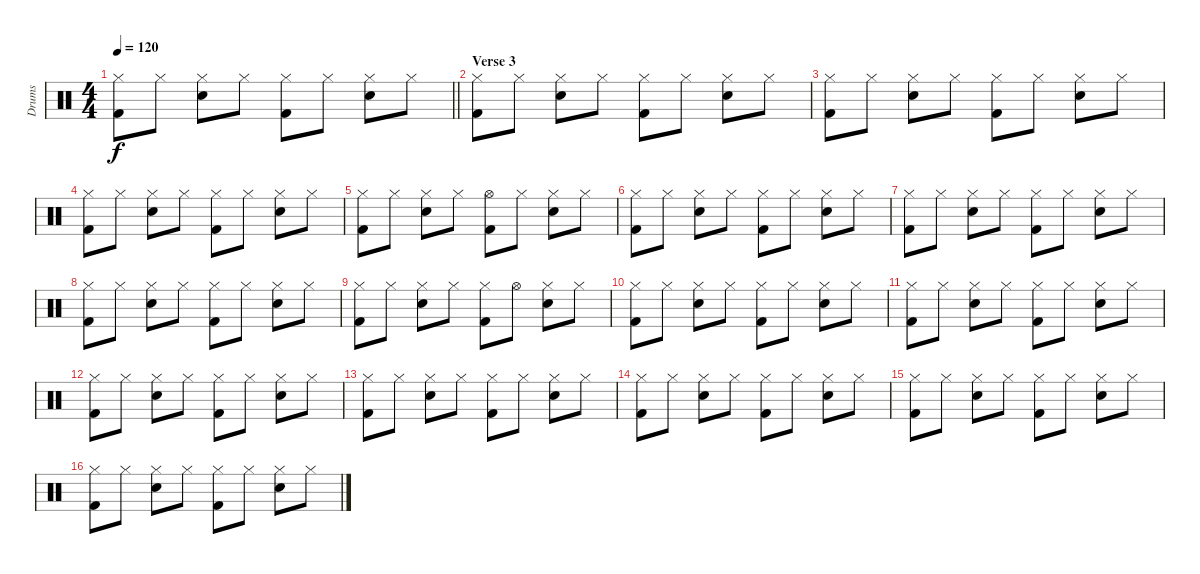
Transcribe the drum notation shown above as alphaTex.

\track ("Drums" "Drums") {instrument percussion}
\staff {score}
\articulation defaults
\ts (4 4)
\tempo 120
\clef neutral
\barLineRight lightlight
\ks c
("Hi-Hat (closed)" "Kick (hit) 2").8{dy f} "Hi-Hat (closed)".8 ("Hi-Hat (closed)" "Snare (hit) 2").8 "Hi-Hat (closed)".8 ("Hi-Hat (closed)" "Kick (hit) 2").8 "Hi-Hat (closed)".8 ("Hi-Hat (closed)" "Snare (hit) 2").8 "Hi-Hat (closed)".8 |
\section ("" "Verse 3")
("Hi-Hat (closed)" "Kick (hit) 2").8 "Hi-Hat (closed)".8 ("Hi-Hat (closed)" "Snare (hit) 2").8 "Hi-Hat (closed)".8 ("Hi-Hat (closed)" "Kick (hit) 2").8 "Hi-Hat (closed)".8 ("Hi-Hat (closed)" "Snare (hit) 2").8 "Hi-Hat (closed)".8 |
("Hi-Hat (closed)" "Kick (hit) 2").8 "Hi-Hat (closed)".8 ("Hi-Hat (closed)" "Snare (hit) 2").8 "Hi-Hat (closed)".8 ("Hi-Hat (closed)" "Kick (hit) 2").8 "Hi-Hat (closed)".8 ("Hi-Hat (closed)" "Snare (hit) 2").8 "Hi-Hat (closed)".8 |
("Hi-Hat (closed)" "Kick (hit) 2").8 "Hi-Hat (closed)".8 ("Hi-Hat (closed)" "Snare (hit) 2").8 "Hi-Hat (closed)".8 ("Hi-Hat (closed)" "Kick (hit) 2").8 "Hi-Hat (closed)".8 ("Hi-Hat (closed)" "Snare (hit) 2").8 "Hi-Hat (closed)".8 |
("Hi-Hat (closed)" "Kick (hit) 2").8 "Hi-Hat (closed)".8 ("Hi-Hat (closed)" "Snare (hit) 2").8 "Hi-Hat (closed)".8 ("Hi-Hat (open)" "Kick (hit) 2").8 "Hi-Hat (closed)".8 ("Hi-Hat (closed)" "Snare (hit) 2").8 "Hi-Hat (closed)".8 |
("Hi-Hat (closed)" "Kick (hit) 2").8 "Hi-Hat (closed)".8 ("Hi-Hat (closed)" "Snare (hit) 2").8 "Hi-Hat (closed)".8 ("Hi-Hat (closed)" "Kick (hit) 2").8 "Hi-Hat (closed)".8 ("Hi-Hat (closed)" "Snare (hit) 2").8 "Hi-Hat (closed)".8 |
("Hi-Hat (closed)" "Kick (hit) 2").8 "Hi-Hat (closed)".8 ("Hi-Hat (closed)" "Snare (hit) 2").8 "Hi-Hat (closed)".8 ("Hi-Hat (closed)" "Kick (hit) 2").8 "Hi-Hat (closed)".8 ("Hi-Hat (closed)" "Snare (hit) 2").8 "Hi-Hat (closed)".8 |
("Hi-Hat (closed)" "Kick (hit) 2").8 "Hi-Hat (closed)".8 ("Hi-Hat (closed)" "Snare (hit) 2").8 "Hi-Hat (closed)".8 ("Hi-Hat (closed)" "Kick (hit) 2").8 "Hi-Hat (closed)".8 ("Hi-Hat (closed)" "Snare (hit) 2").8 "Hi-Hat (closed)".8 |
("Hi-Hat (closed)" "Kick (hit) 2").8 "Hi-Hat (closed)".8 ("Hi-Hat (closed)" "Snare (hit) 2").8 "Hi-Hat (closed)".8 ("Hi-Hat (closed)" "Kick (hit) 2").8 "Hi-Hat (open)".8 ("Hi-Hat (closed)" "Snare (hit) 2").8 "Hi-Hat (closed)".8 |
("Hi-Hat (closed)" "Kick (hit) 2").8 "Hi-Hat (closed)".8 ("Hi-Hat (closed)" "Snare (hit) 2").8 "Hi-Hat (closed)".8 ("Hi-Hat (closed)" "Kick (hit) 2").8 "Hi-Hat (closed)".8 ("Hi-Hat (closed)" "Snare (hit) 2").8 "Hi-Hat (closed)".8 |
("Hi-Hat (closed)" "Kick (hit) 2").8 "Hi-Hat (closed)".8 ("Hi-Hat (closed)" "Snare (hit) 2").8 "Hi-Hat (closed)".8 ("Hi-Hat (closed)" "Kick (hit) 2").8 "Hi-Hat (closed)".8 ("Hi-Hat (closed)" "Snare (hit) 2").8 "Hi-Hat (closed)".8 |
("Hi-Hat (closed)" "Kick (hit) 2").8 "Hi-Hat (closed)".8 ("Hi-Hat (closed)" "Snare (hit) 2").8 "Hi-Hat (closed)".8 ("Hi-Hat (closed)" "Kick (hit) 2").8 "Hi-Hat (closed)".8 ("Hi-Hat (closed)" "Snare (hit) 2").8 "Hi-Hat (closed)".8 |
("Hi-Hat (closed)" "Kick (hit) 2").8 "Hi-Hat (closed)".8 ("Hi-Hat (closed)" "Snare (hit) 2").8 "Hi-Hat (closed)".8 ("Hi-Hat (closed)" "Kick (hit) 2").8 "Hi-Hat (closed)".8 ("Hi-Hat (closed)" "Snare (hit) 2").8 "Hi-Hat (closed)".8 |
("Hi-Hat (closed)" "Kick (hit) 2").8 "Hi-Hat (closed)".8 ("Hi-Hat (closed)" "Snare (hit) 2").8 "Hi-Hat (closed)".8 ("Hi-Hat (closed)" "Kick (hit) 2").8 "Hi-Hat (closed)".8 ("Hi-Hat (closed)" "Snare (hit) 2").8 "Hi-Hat (closed)".8 |
("Hi-Hat (closed)" "Kick (hit) 2").8 "Hi-Hat (closed)".8 ("Hi-Hat (closed)" "Snare (hit) 2").8 "Hi-Hat (closed)".8 ("Hi-Hat (closed)" "Kick (hit) 2").8 "Hi-Hat (closed)".8 ("Hi-Hat (closed)" "Snare (hit) 2").8 "Hi-Hat (closed)".8 |
("Hi-Hat (closed)" "Kick (hit) 2").8 "Hi-Hat (closed)".8 ("Hi-Hat (closed)" "Snare (hit) 2").8 "Hi-Hat (closed)".8 ("Hi-Hat (closed)" "Kick (hit) 2").8 "Hi-Hat (closed)".8 ("Hi-Hat (closed)" "Snare (hit) 2").8 "Hi-Hat (closed)".8
